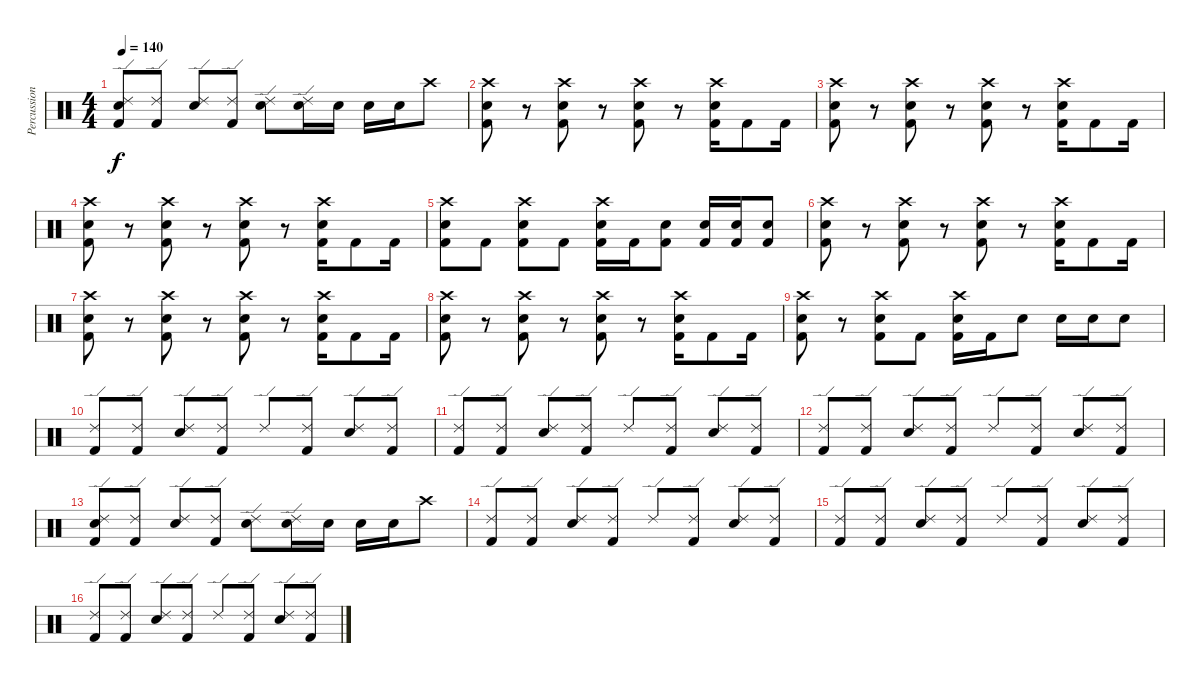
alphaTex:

\track ("Percussion" "Percussion") {instrument percussion}
\staff {score}
\articulation defaults
\ts (4 4)
\tempo 140
\clef neutral
\ks c
("Kick (hit) 2" "Snare (hit) 2" "Ride (edge) 2").8{dy f} ("Kick (hit) 2" "Ride (edge) 2").8 ("Snare (hit) 2" "Ride (edge) 2").8 ("Kick (hit) 2" "Ride (edge) 2").8 ("Snare (hit) 2" "Ride (edge) 2").8 ("Snare (hit) 2" "Ride (edge) 2").16 "Snare (hit) 2".16 "Snare (hit) 2".16 "Snare (hit) 2".16 "Crash high (hit)".8 |
("Kick (hit) 2" "Snare (hit) 2" "Crash high (hit)").8 r.8 ("Kick (hit) 2" "Snare (hit) 2" "Crash high (hit)").8 r.8 ("Kick (hit) 2" "Snare (hit) 2" "Crash high (hit)").8 r.8 ("Kick (hit) 2" "Snare (hit) 2" "Crash high (hit)").16 "Kick (hit) 2".8 "Kick (hit) 2".16 |
("Kick (hit) 2" "Snare (hit) 2" "Crash high (hit)").8 r.8 ("Kick (hit) 2" "Snare (hit) 2" "Crash high (hit)").8 r.8 ("Kick (hit) 2" "Snare (hit) 2" "Crash high (hit)").8 r.8 ("Kick (hit) 2" "Snare (hit) 2" "Crash high (hit)").16 "Kick (hit) 2".8 "Kick (hit) 2".16 |
("Kick (hit) 2" "Snare (hit) 2" "Crash high (hit)").8 r.8 ("Kick (hit) 2" "Snare (hit) 2" "Crash high (hit)").8 r.8 ("Kick (hit) 2" "Snare (hit) 2" "Crash high (hit)").8 r.8 ("Kick (hit) 2" "Snare (hit) 2" "Crash high (hit)").16 "Kick (hit) 2".8 "Kick (hit) 2".16 |
("Kick (hit) 2" "Snare (hit) 2" "Crash high (hit)").8 "Kick (hit) 2".8 ("Kick (hit) 2" "Snare (hit) 2" "Crash high (hit)").8 "Kick (hit) 2".8 ("Kick (hit) 2" "Snare (hit) 2" "Crash high (hit)").16 "Kick (hit) 2".16 ("Kick (hit) 2" "Snare (hit) 2").8 ("Kick (hit) 2" "Snare (hit) 2").16 ("Kick (hit) 2" "Snare (hit) 2").16 ("Kick (hit) 2" "Snare (hit) 2").8 |
("Kick (hit) 2" "Snare (hit) 2" "Crash high (hit)").8 r.8 ("Kick (hit) 2" "Snare (hit) 2" "Crash high (hit)").8 r.8 ("Kick (hit) 2" "Snare (hit) 2" "Crash high (hit)").8 r.8 ("Kick (hit) 2" "Snare (hit) 2" "Crash high (hit)").16 "Kick (hit) 2".8 "Kick (hit) 2".16 |
("Kick (hit) 2" "Snare (hit) 2" "Crash high (hit)").8 r.8 ("Kick (hit) 2" "Snare (hit) 2" "Crash high (hit)").8 r.8 ("Kick (hit) 2" "Snare (hit) 2" "Crash high (hit)").8 r.8 ("Kick (hit) 2" "Snare (hit) 2" "Crash high (hit)").16 "Kick (hit) 2".8 "Kick (hit) 2".16 |
("Kick (hit) 2" "Snare (hit) 2" "Crash high (hit)").8 r.8 ("Kick (hit) 2" "Snare (hit) 2" "Crash high (hit)").8 r.8 ("Kick (hit) 2" "Snare (hit) 2" "Crash high (hit)").8 r.8 ("Kick (hit) 2" "Snare (hit) 2" "Crash high (hit)").16 "Kick (hit) 2".8 "Kick (hit) 2".16 |
("Kick (hit) 2" "Snare (hit) 2" "Crash high (hit)").8 r.8 ("Kick (hit) 2" "Snare (hit) 2" "Crash high (hit)").8 "Kick (hit) 2".8 ("Kick (hit) 2" "Snare (hit) 2" "Crash high (hit)").16 "Kick (hit) 2".16 "Snare (hit) 2".8 "Snare (hit) 2".16 "Snare (hit) 2".16 "Snare (hit) 2".8 |
("Kick (hit) 2" "Ride (edge) 2").8 ("Kick (hit) 2" "Ride (edge) 2").8 ("Snare (hit) 2" "Ride (edge) 2").8 ("Kick (hit) 2" "Ride (edge) 2").8 "Ride (edge) 2".8 ("Kick (hit) 2" "Ride (edge) 2").8 ("Snare (hit) 2" "Ride (edge) 2").8 ("Kick (hit) 2" "Ride (edge) 2").8 |
("Kick (hit) 2" "Ride (edge) 2").8 ("Kick (hit) 2" "Ride (edge) 2").8 ("Snare (hit) 2" "Ride (edge) 2").8 ("Kick (hit) 2" "Ride (edge) 2").8 "Ride (edge) 2".8 ("Kick (hit) 2" "Ride (edge) 2").8 ("Snare (hit) 2" "Ride (edge) 2").8 ("Kick (hit) 2" "Ride (edge) 2").8 |
("Kick (hit) 2" "Ride (edge) 2").8 ("Kick (hit) 2" "Ride (edge) 2").8 ("Snare (hit) 2" "Ride (edge) 2").8 ("Kick (hit) 2" "Ride (edge) 2").8 "Ride (edge) 2".8 ("Kick (hit) 2" "Ride (edge) 2").8 ("Snare (hit) 2" "Ride (edge) 2").8 ("Kick (hit) 2" "Ride (edge) 2").8 |
("Kick (hit) 2" "Snare (hit) 2" "Ride (edge) 2").8 ("Kick (hit) 2" "Ride (edge) 2").8 ("Snare (hit) 2" "Ride (edge) 2").8 ("Kick (hit) 2" "Ride (edge) 2").8 ("Snare (hit) 2" "Ride (edge) 2").8 ("Snare (hit) 2" "Ride (edge) 2").16 "Snare (hit) 2".16 "Snare (hit) 2".16 "Snare (hit) 2".16 "Crash high (hit)".8 |
("Kick (hit) 2" "Ride (edge) 2").8 ("Kick (hit) 2" "Ride (edge) 2").8 ("Snare (hit) 2" "Ride (edge) 2").8 ("Kick (hit) 2" "Ride (edge) 2").8 "Ride (edge) 2".8 ("Kick (hit) 2" "Ride (edge) 2").8 ("Snare (hit) 2" "Ride (edge) 2").8 ("Kick (hit) 2" "Ride (edge) 2").8 |
("Kick (hit) 2" "Ride (edge) 2").8 ("Kick (hit) 2" "Ride (edge) 2").8 ("Snare (hit) 2" "Ride (edge) 2").8 ("Kick (hit) 2" "Ride (edge) 2").8 "Ride (edge) 2".8 ("Kick (hit) 2" "Ride (edge) 2").8 ("Snare (hit) 2" "Ride (edge) 2").8 ("Kick (hit) 2" "Ride (edge) 2").8 |
("Kick (hit) 2" "Ride (edge) 2").8 ("Kick (hit) 2" "Ride (edge) 2").8 ("Snare (hit) 2" "Ride (edge) 2").8 ("Kick (hit) 2" "Ride (edge) 2").8 "Ride (edge) 2".8 ("Kick (hit) 2" "Ride (edge) 2").8 ("Snare (hit) 2" "Ride (edge) 2").8 ("Kick (hit) 2" "Ride (edge) 2").8
